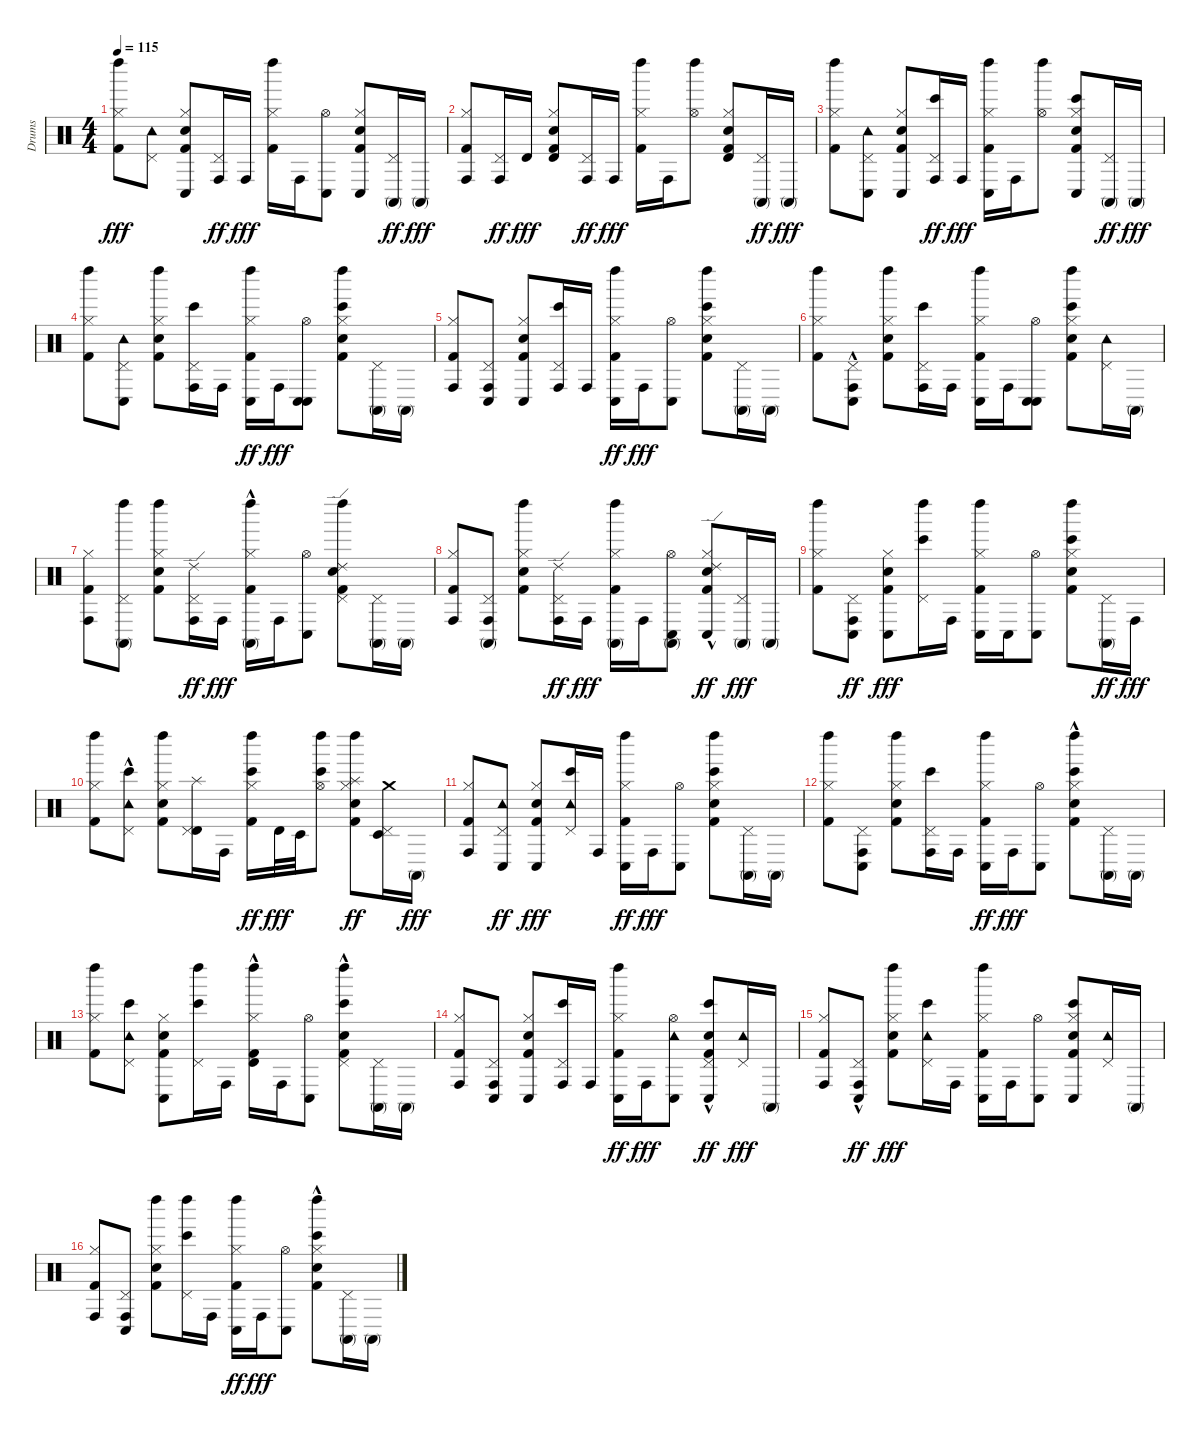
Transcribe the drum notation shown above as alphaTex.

\track ("Drums" "Drums") {instrument percussion}
\staff {score}
\articulation defaults
\ts (4 4)
\tempo 115
\clef neutral
\ks c
("Left Maraca (hit)" "Hi-Hat (closed)" "Kick (hit) 2").8{dy fff} ("Pedal Hi-Hat (hit)" "Tambourine (hit)").8 ("Conga low (hit)" "Hi-Hat (closed)" "Snare (hit) 2" "Kick (hit) 2").8 ("Conga high (hit)" "Pedal Hi-Hat (hit)").16{dy ff} "Conga high (hit)".16{dy fff} ("Left Maraca (hit)" "Hi-Hat (closed)" "Kick (hit) 2").16 "Conga high (hit)".16 ("Conga low (hit)" "Hi-Hat (open)").8 ("Conga low (hit)" "Hi-Hat (closed)" "Snare (hit) 2" "Kick (hit) 2").8 ("Conga high (mute)" "Pedal Hi-Hat (hit)").16{dy ff} "Conga high (mute)".16{dy fff} |
("Conga high (hit)" "Hi-Hat (closed)" "Kick (hit) 2").8 ("Conga high (hit)" "Pedal Hi-Hat (hit)").16{dy ff} "Timbale high (hit)".16{dy fff} ("Timbale high (hit)" "Hi-Hat (closed)" "Snare (hit) 2" "Kick (hit) 2").8 ("Conga high (hit)" "Pedal Hi-Hat (hit)").16{dy ff} "Conga high (hit)".16{dy fff} ("Left Maraca (hit)" "Hi-Hat (closed)" "Kick (hit) 2").16 "Conga high (hit)".16 ("Left Maraca (hit)" "Hi-Hat (open)").8 ("Timbale high (hit)" "Hi-Hat (closed)" "Snare (hit) 2" "Kick (hit) 2").8 ("Conga high (mute)" "Pedal Hi-Hat (hit)").16{dy ff} "Conga high (mute)".16{dy fff} |
("Left Maraca (hit)" "Hi-Hat (closed)" "Kick (hit) 2").8 ("Conga low (hit)" "Pedal Hi-Hat (hit)" "Tambourine (hit)").8 ("Conga low (hit)" "Hi-Hat (closed)" "Snare (hit) 2" "Kick (hit) 2").8 ("Bongo High (hit)" "Conga high (hit)" "Pedal Hi-Hat (hit)").16{dy ff} "Conga high (hit)".16{dy fff} ("Conga low (hit)" "Left Maraca (hit)" "Hi-Hat (closed)" "Kick (hit) 2").16 "Conga high (hit)".16 ("Left Maraca (hit)" "Hi-Hat (open)").8 ("Bongo High (hit)" "Conga low (hit)" "Hi-Hat (closed)" "Snare (hit) 2" "Kick (hit) 2").8 ("Conga high (mute)" "Pedal Hi-Hat (hit)").16{dy ff} "Conga high (mute)".16{dy fff} |
("Left Maraca (hit)" "Hi-Hat (closed)" "Kick (hit) 2").8 ("Conga low (hit)" "Pedal Hi-Hat (hit)" "Tambourine (hit)").8 ("Left Maraca (hit)" "Hi-Hat (closed)" "Snare (hit) 2" "Kick (hit) 2").8 ("Bongo High (hit)" "Conga high (hit)" "Pedal Hi-Hat (hit)").16 "Conga high (hit)".16 ("Left Maraca (hit)" "Hi-Hat (closed)" "Kick (hit) 2" "Conga low (hit)").16{dy ff} "Conga high (hit)".16{dy fff} ("Conga low (hit)" "Conga low (hit)" "Hi-Hat (open)").8 ("Bongo High (hit)" "Left Maraca (hit)" "Hi-Hat (closed)" "Snare (hit) 2" "Kick (hit) 2").8 ("Conga high (mute)" "Pedal Hi-Hat (hit)").16 "Conga high (mute)".16 |
("Conga high (hit)" "Hi-Hat (closed)" "Kick (hit) 2").8 ("Conga high (hit)" "Pedal Hi-Hat (hit)" "Conga low (hit)").8 ("Conga low (hit)" "Hi-Hat (closed)" "Snare (hit) 2" "Kick (hit) 2").8 ("Bongo High (hit)" "Conga high (hit)" "Pedal Hi-Hat (hit)").16 "Conga high (hit)".16 ("Left Maraca (hit)" "Hi-Hat (closed)" "Kick (hit) 2" "Conga low (hit)").16{dy ff} "Conga high (hit)".16{dy fff} ("Conga low (hit)" "Hi-Hat (open)").8 ("Bongo High (hit)" "Left Maraca (hit)" "Hi-Hat (closed)" "Snare (hit) 2" "Kick (hit) 2").8 ("Conga high (mute)" "Pedal Hi-Hat (hit)").16 "Conga high (mute)".16 |
("Left Maraca (hit)" "Hi-Hat (closed)" "Kick (hit) 2").8 ("Conga high (hit)" "Pedal Hi-Hat (hit)" "Conga low (hit)"{hac}).8 ("Left Maraca (hit)" "Hi-Hat (closed)" "Snare (hit) 2" "Kick (hit) 2").8 ("Bongo High (hit)" "Conga high (hit)" "Pedal Hi-Hat (hit)").16 "Conga high (hit)".16 ("Conga low (hit)" "Left Maraca (hit)" "Hi-Hat (closed)" "Kick (hit) 2").16 "Conga high (hit)".16 ("Conga low (hit)" "Conga low (hit)" "Hi-Hat (open)").8 ("Bongo High (hit)" "Left Maraca (hit)" "Hi-Hat (closed)" "Snare (hit) 2" "Kick (hit) 2").8 ("Pedal Hi-Hat (hit)" "Tambourine (hit)").16 "Conga high (mute)".16 |
("Conga high (hit)" "Hi-Hat (closed)" "Kick (hit) 2").8 ("Conga high (mute)" "Left Maraca (hit)" "Pedal Hi-Hat (hit)").8 ("Left Maraca (hit)" "Hi-Hat (closed)" "Snare (hit) 2" "Kick (hit) 2").8 ("Ride (edge) 2" "Conga high (hit)" "Pedal Hi-Hat (hit)").16{dy ff} "Conga high (hit)".16{dy fff} ("Left Maraca (hit)" "Hi-Hat (closed)" "Kick (hit) 2" "Conga high (mute)"{hac}).16 "Conga high (hit)".16 ("Conga low (hit)" "Hi-Hat (open)").8 ("Ride (edge) 2" "Left Maraca (hit)" "Pedal Hi-Hat (hit)" "Snare (hit) 2" "Kick (hit) 2").8 ("Conga high (mute)" "Pedal Hi-Hat (hit)").16 "Conga high (mute)".16 |
("Conga high (hit)" "Hi-Hat (closed)" "Kick (hit) 2").8 ("Conga high (mute)" "Conga high (hit)" "Pedal Hi-Hat (hit)").8 ("Left Maraca (hit)" "Hi-Hat (closed)" "Snare (hit) 2" "Kick (hit) 2").8 ("Conga high (hit)" "Pedal Hi-Hat (hit)" "Ride (edge) 2").16{dy ff} "Conga high (hit)".16{dy fff} ("Conga high (mute)" "Left Maraca (hit)" "Hi-Hat (closed)" "Kick (hit) 2").16 "Conga high (hit)".16 ("Conga high (mute)" "Conga low (hit)" "Hi-Hat (open)").8 ("Conga low (hit)" "Hi-Hat (closed)" "Snare (hit) 2" "Kick (hit) 2" "Ride (edge) 2"{hac}).8{dy ff} ("Conga high (mute)" "Pedal Hi-Hat (hit)").16{dy fff} "Conga high (mute)".16 |
("Left Maraca (hit)" "Hi-Hat (closed)" "Kick (hit) 2").8 ("Conga low (hit)" "Conga high (hit)" "Pedal Hi-Hat (hit)").8{dy ff} ("Conga low (hit)" "Hi-Hat (closed)" "Snare (hit) 2" "Kick (hit) 2").8{dy fff} ("Bongo High (hit)" "Left Maraca (hit)" "Pedal Hi-Hat (hit)").16 "Conga high (hit)".16 ("Conga low (hit)" "Left Maraca (hit)" "Hi-Hat (closed)" "Kick (hit) 2").16 "Conga low (hit)".16 ("Conga low (hit)" "Hi-Hat (open)").8 ("Bongo High (hit)" "Left Maraca (hit)" "Hi-Hat (closed)" "Snare (hit) 2" "Kick (hit) 2").8 ("Conga high (mute)" "Pedal Hi-Hat (hit)").16{dy ff} "Conga high (hit)".16{dy fff} |
("Left Maraca (hit)" "Hi-Hat (closed)" "Kick (hit) 2").8 ("Pedal Hi-Hat (hit)" "Tambourine (hit)" "Bongo High (hit)"{hac}).8 ("Left Maraca (hit)" "Hi-Hat (closed)" "Snare (hit) 2" "Kick (hit) 2").8 ("Splash (hit)" "Timbale high (hit)" "Pedal Hi-Hat (hit)").16 "Conga high (hit)".16 ("Left Maraca (hit)" "Hi-Hat (closed)" "Kick (hit) 2" "Bongo High (hit)").16{dy ff} "Timbale high (hit)".32{dy fff} "Timbale low (hit)".32 ("Bongo High (hit)" "Left Maraca (hit)" "Hi-Hat (open)").8 ("Left Maraca (hit)" "Hi-Hat (closed)" "Snare (hit) 2" "Kick (hit) 2" "Splash (hit)").8{dy ff} ("Timbale low (hit)" "Pedal Hi-Hat (hit)" "Crash medium (hit)").16 "Conga high (mute)".16{dy fff} |
("Conga high (hit)" "Hi-Hat (closed)" "Kick (hit) 2").8 ("Pedal Hi-Hat (hit)" "Tambourine (hit)" "Conga low (hit)").8{dy ff} ("Conga low (hit)" "Hi-Hat (closed)" "Snare (hit) 2" "Kick (hit) 2").8{dy fff} ("Bongo High (hit)" "Pedal Hi-Hat (hit)" "Tambourine (hit)").16 "Conga high (hit)".16 ("Left Maraca (hit)" "Hi-Hat (closed)" "Kick (hit) 2" "Conga low (hit)").16{dy ff} "Conga high (hit)".16{dy fff} ("Conga low (hit)" "Hi-Hat (open)").8 ("Bongo High (hit)" "Left Maraca (hit)" "Hi-Hat (closed)" "Snare (hit) 2" "Kick (hit) 2").8 ("Conga high (mute)" "Pedal Hi-Hat (hit)").16 "Conga high (mute)".16 |
("Left Maraca (hit)" "Hi-Hat (closed)" "Kick (hit) 2").8 ("Conga low (hit)" "Conga high (hit)" "Pedal Hi-Hat (hit)").8 ("Left Maraca (hit)" "Hi-Hat (closed)" "Snare (hit) 2" "Kick (hit) 2").8 ("Bongo High (hit)" "Conga high (hit)" "Pedal Hi-Hat (hit)").16 "Conga high (hit)".16 ("Left Maraca (hit)" "Hi-Hat (closed)" "Kick (hit) 2" "Conga low (hit)").16{dy ff} "Conga high (hit)".16{dy fff} ("Conga low (hit)" "Hi-Hat (open)").8 ("Left Maraca (hit)" "Hi-Hat (closed)" "Snare (hit) 2" "Kick (hit) 2" "Bongo High (hit)"{hac}).8 ("Conga high (mute)" "Pedal Hi-Hat (hit)").16 "Conga high (mute)".16 |
("Left Maraca (hit)" "Hi-Hat (closed)" "Kick (hit) 2").8 ("Pedal Hi-Hat (hit)" "Tambourine (hit)" "Bongo High (hit)").8 ("Conga low (hit)" "Hi-Hat (closed)" "Snare (hit) 2" "Kick (hit) 2").8 ("Left Maraca (hit)" "Pedal Hi-Hat (hit)" "Bongo High (hit)").16 "Conga high (hit)".16 ("Left Maraca (hit)" "Hi-Hat (closed)" "Kick (hit) 2" "Timbale high (hit)"{hac}).16 "Conga high (hit)".16 ("Conga low (hit)" "Hi-Hat (open)").8 ("Left Maraca (hit)" "Pedal Hi-Hat (hit)" "Snare (hit) 2" "Kick (hit) 2" "Bongo High (hit)"{hac}).8 ("Conga high (mute)" "Pedal Hi-Hat (hit)").16 "Conga high (mute)".16 |
("Conga high (hit)" "Hi-Hat (closed)" "Kick (hit) 2").8 ("Conga high (hit)" "Pedal Hi-Hat (hit)" "Conga low (hit)").8 ("Conga low (hit)" "Hi-Hat (closed)" "Snare (hit) 2" "Kick (hit) 2").8 ("Bongo High (hit)" "Conga high (hit)" "Pedal Hi-Hat (hit)").16 "Conga high (hit)".16 ("Left Maraca (hit)" "Hi-Hat (closed)" "Kick (hit) 2" "Conga low (hit)").16{dy ff} "Conga high (hit)".16{dy fff} ("Conga low (hit)" "Hi-Hat (open)" "Tambourine (hit)").8 ("Conga low (hit)" "Pedal Hi-Hat (hit)" "Snare (hit) 2" "Kick (hit) 2" "Bongo High (hit)"{hac}).8{dy ff} ("Pedal Hi-Hat (hit)" "Tambourine (hit)").16{dy fff} "Conga high (mute)".16 |
("Conga high (hit)" "Hi-Hat (closed)" "Kick (hit) 2").8 ("Conga high (hit)" "Pedal Hi-Hat (hit)" "Conga low (hit)"{hac}).8{dy ff} ("Left Maraca (hit)" "Hi-Hat (closed)" "Snare (hit) 2" "Kick (hit) 2").8{dy fff} ("Bongo High (hit)" "Pedal Hi-Hat (hit)" "Tambourine (hit)").16 "Conga high (hit)".16 ("Conga low (hit)" "Left Maraca (hit)" "Hi-Hat (closed)" "Kick (hit) 2").16 "Conga high (hit)".16 ("Conga low (hit)" "Hi-Hat (open)").8 ("Bongo High (hit)" "Conga low (hit)" "Hi-Hat (closed)" "Snare (hit) 2" "Kick (hit) 2").8 ("Pedal Hi-Hat (hit)" "Tambourine (hit)").16 "Conga high (mute)".16 |
("Conga high (hit)" "Hi-Hat (closed)" "Kick (hit) 2").8 ("Conga low (hit)" "Conga high (hit)" "Pedal Hi-Hat (hit)").8 ("Left Maraca (hit)" "Hi-Hat (closed)" "Snare (hit) 2" "Kick (hit) 2").8 ("Bongo High (hit)" "Left Maraca (hit)" "Pedal Hi-Hat (hit)").16 "Conga high (hit)".16 ("Left Maraca (hit)" "Hi-Hat (closed)" "Kick (hit) 2" "Conga low (hit)").16{dy ff} "Conga high (hit)".16{dy fff} ("Conga low (hit)" "Hi-Hat (open)").8 ("Left Maraca (hit)" "Hi-Hat (closed)" "Snare (hit) 2" "Kick (hit) 2" "Bongo High (hit)"{hac}).8 ("Conga high (mute)" "Pedal Hi-Hat (hit)").16 "Conga high (mute)".16
